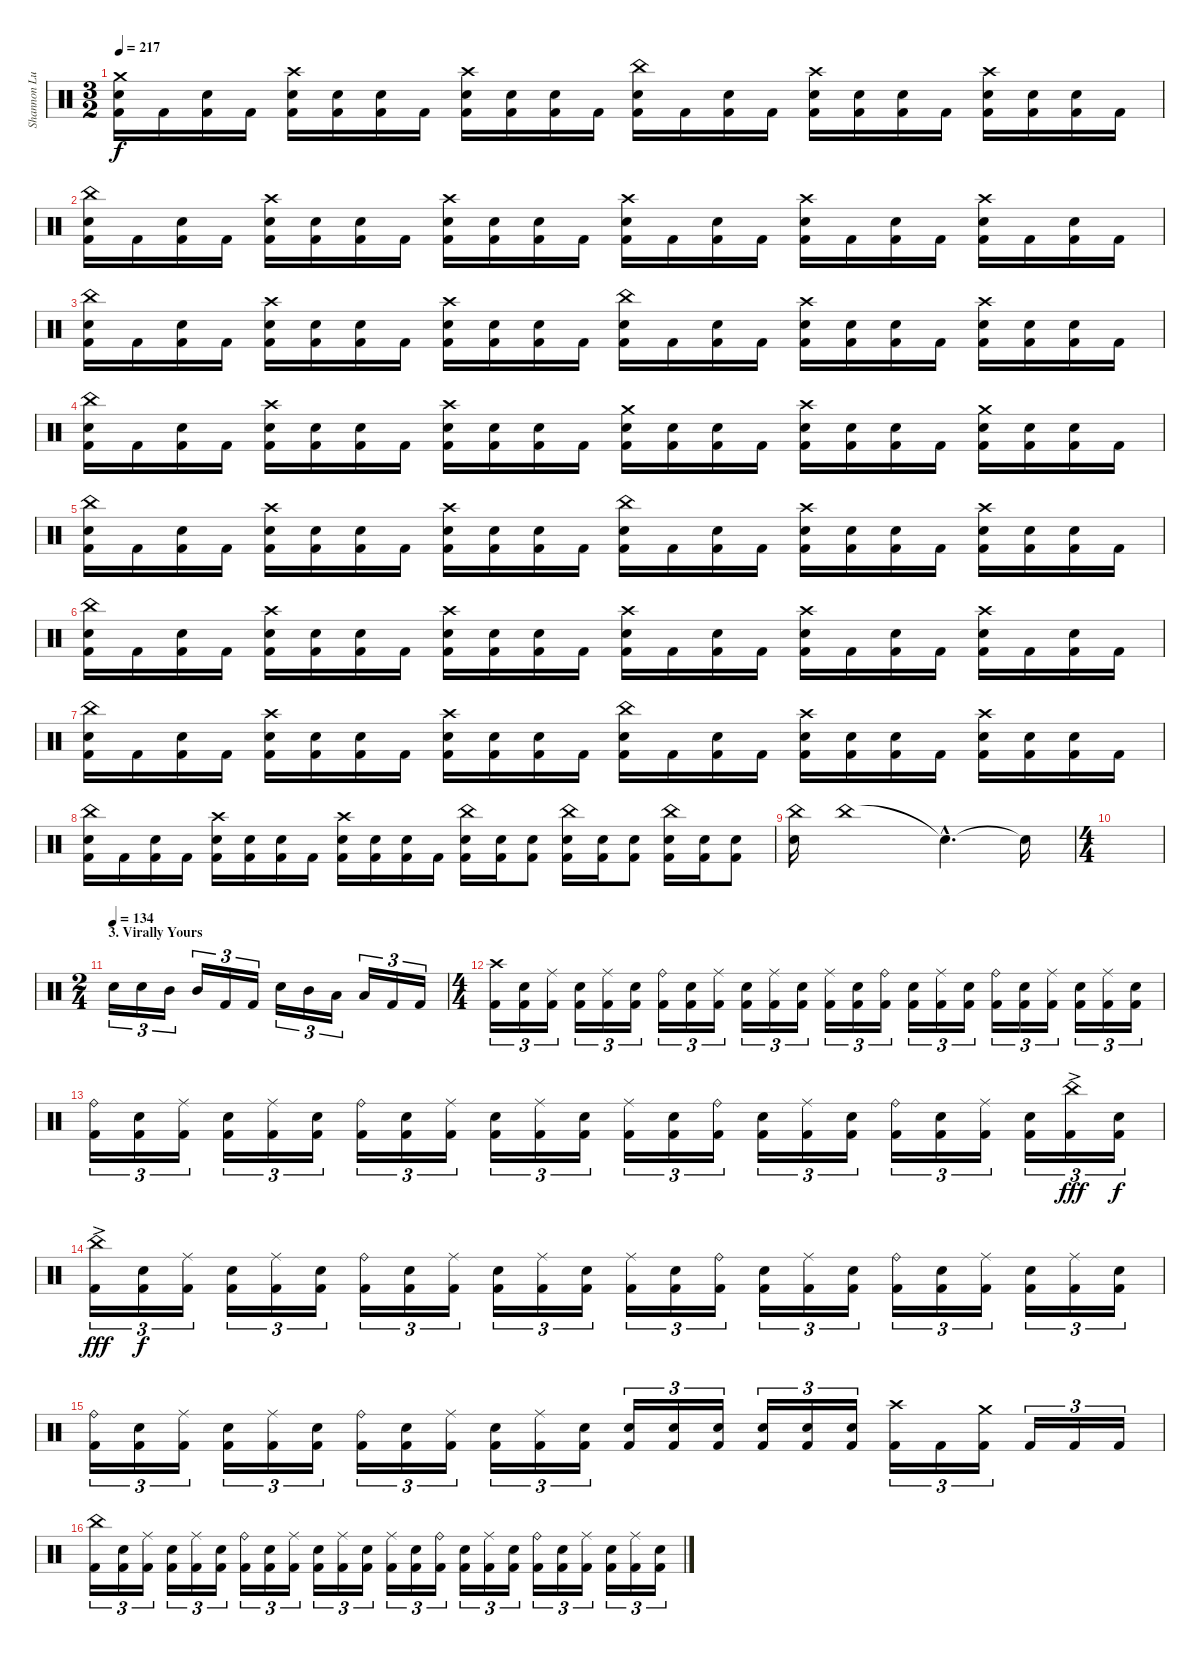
\track ("Shannon Lucas [Drums (Since 2007)]" "Shannon Lu") {instrument percussion}
\staff {score}
\articulation defaults
\ts (3 2)
\tempo 217
\clef neutral
\ks c
("Crash medium (hit)" "Snare (hit) 2" "Kick (hit) 2").16{dy f} "Kick (hit) 2".16 ("Snare (hit) 2" "Kick (hit) 2").16 "Kick (hit) 2".16 ("Crash high (hit)" "Snare (hit) 2" "Kick (hit) 2").16 ("Snare (hit) 2" "Kick (hit) 2").16 ("Snare (hit) 2" "Kick (hit) 2").16 "Kick (hit) 2".16 ("Crash high (hit)" "Snare (hit) 2" "Kick (hit) 2").16 ("Snare (hit) 2" "Kick (hit) 2").16 ("Snare (hit) 2" "Kick (hit) 2").16 "Kick (hit) 2".16 ("China (hit)" "Snare (hit) 2" "Kick (hit) 2").16 "Kick (hit) 2".16 ("Snare (hit) 2" "Kick (hit) 2").16 "Kick (hit) 2".16 ("Crash high (hit)" "Snare (hit) 2" "Kick (hit) 2").16 ("Snare (hit) 2" "Kick (hit) 2").16 ("Snare (hit) 2" "Kick (hit) 2").16 "Kick (hit) 2".16 ("Crash high (hit)" "Snare (hit) 2" "Kick (hit) 2").16 ("Snare (hit) 2" "Kick (hit) 2").16 ("Snare (hit) 2" "Kick (hit) 2").16 "Kick (hit) 2".16 |
("China (hit)" "Snare (hit) 2" "Kick (hit) 2").16 "Kick (hit) 2".16 ("Snare (hit) 2" "Kick (hit) 2").16 "Kick (hit) 2".16 ("Crash high (hit)" "Snare (hit) 2" "Kick (hit) 2").16 ("Snare (hit) 2" "Kick (hit) 2").16 ("Snare (hit) 2" "Kick (hit) 2").16 "Kick (hit) 2".16 ("Crash high (hit)" "Snare (hit) 2" "Kick (hit) 2").16 ("Snare (hit) 2" "Kick (hit) 2").16 ("Snare (hit) 2" "Kick (hit) 2").16 "Kick (hit) 2".16 ("Crash high (hit)" "Snare (hit) 2" "Kick (hit) 2").16 "Kick (hit) 2".16 ("Snare (hit) 2" "Kick (hit) 2").16 "Kick (hit) 2".16 ("Crash high (hit)" "Snare (hit) 2" "Kick (hit) 2").16 "Kick (hit) 2".16 ("Snare (hit) 2" "Kick (hit) 2").16 "Kick (hit) 2".16 ("Crash high (hit)" "Snare (hit) 2" "Kick (hit) 2").16 "Kick (hit) 2".16 ("Snare (hit) 2" "Kick (hit) 2").16 "Kick (hit) 2".16 |
("China (hit)" "Snare (hit) 2" "Kick (hit) 2").16 "Kick (hit) 2".16 ("Snare (hit) 2" "Kick (hit) 2").16 "Kick (hit) 2".16 ("Crash high (hit)" "Snare (hit) 2" "Kick (hit) 2").16 ("Snare (hit) 2" "Kick (hit) 2").16 ("Snare (hit) 2" "Kick (hit) 2").16 "Kick (hit) 2".16 ("Crash high (hit)" "Snare (hit) 2" "Kick (hit) 2").16 ("Snare (hit) 2" "Kick (hit) 2").16 ("Snare (hit) 2" "Kick (hit) 2").16 "Kick (hit) 2".16 ("China (hit)" "Snare (hit) 2" "Kick (hit) 2").16 "Kick (hit) 2".16 ("Snare (hit) 2" "Kick (hit) 2").16 "Kick (hit) 2".16 ("Crash high (hit)" "Snare (hit) 2" "Kick (hit) 2").16 ("Snare (hit) 2" "Kick (hit) 2").16 ("Snare (hit) 2" "Kick (hit) 2").16 "Kick (hit) 2".16 ("Crash high (hit)" "Snare (hit) 2" "Kick (hit) 2").16 ("Snare (hit) 2" "Kick (hit) 2").16 ("Snare (hit) 2" "Kick (hit) 2").16 "Kick (hit) 2".16 |
("China (hit)" "Snare (hit) 2" "Kick (hit) 2").16 "Kick (hit) 2".16 ("Snare (hit) 2" "Kick (hit) 2").16 "Kick (hit) 2".16 ("Crash high (hit)" "Snare (hit) 2" "Kick (hit) 2").16 ("Snare (hit) 2" "Kick (hit) 2").16 ("Snare (hit) 2" "Kick (hit) 2").16 "Kick (hit) 2".16 ("Crash high (hit)" "Snare (hit) 2" "Kick (hit) 2").16 ("Snare (hit) 2" "Kick (hit) 2").16 ("Snare (hit) 2" "Kick (hit) 2").16 "Kick (hit) 2".16 ("Crash medium (hit)" "Snare (hit) 2" "Kick (hit) 2").16 ("Snare (hit) 2" "Kick (hit) 2").16 ("Snare (hit) 2" "Kick (hit) 2").16 "Kick (hit) 2".16 ("Crash high (hit)" "Snare (hit) 2" "Kick (hit) 2").16 ("Snare (hit) 2" "Kick (hit) 2").16 ("Snare (hit) 2" "Kick (hit) 2").16 "Kick (hit) 2".16 ("Crash medium (hit)" "Snare (hit) 2" "Kick (hit) 2").16 ("Snare (hit) 2" "Kick (hit) 2").16 ("Snare (hit) 2" "Kick (hit) 2").16 "Kick (hit) 2".16 |
("China (hit)" "Snare (hit) 2" "Kick (hit) 2").16 "Kick (hit) 2".16 ("Snare (hit) 2" "Kick (hit) 2").16 "Kick (hit) 2".16 ("Crash high (hit)" "Snare (hit) 2" "Kick (hit) 2").16 ("Snare (hit) 2" "Kick (hit) 2").16 ("Snare (hit) 2" "Kick (hit) 2").16 "Kick (hit) 2".16 ("Crash high (hit)" "Snare (hit) 2" "Kick (hit) 2").16 ("Snare (hit) 2" "Kick (hit) 2").16 ("Snare (hit) 2" "Kick (hit) 2").16 "Kick (hit) 2".16 ("China (hit)" "Snare (hit) 2" "Kick (hit) 2").16 "Kick (hit) 2".16 ("Snare (hit) 2" "Kick (hit) 2").16 "Kick (hit) 2".16 ("Crash high (hit)" "Snare (hit) 2" "Kick (hit) 2").16 ("Snare (hit) 2" "Kick (hit) 2").16 ("Snare (hit) 2" "Kick (hit) 2").16 "Kick (hit) 2".16 ("Crash high (hit)" "Snare (hit) 2" "Kick (hit) 2").16 ("Snare (hit) 2" "Kick (hit) 2").16 ("Snare (hit) 2" "Kick (hit) 2").16 "Kick (hit) 2".16 |
("China (hit)" "Snare (hit) 2" "Kick (hit) 2").16 "Kick (hit) 2".16 ("Snare (hit) 2" "Kick (hit) 2").16 "Kick (hit) 2".16 ("Crash high (hit)" "Snare (hit) 2" "Kick (hit) 2").16 ("Snare (hit) 2" "Kick (hit) 2").16 ("Snare (hit) 2" "Kick (hit) 2").16 "Kick (hit) 2".16 ("Crash high (hit)" "Snare (hit) 2" "Kick (hit) 2").16 ("Snare (hit) 2" "Kick (hit) 2").16 ("Snare (hit) 2" "Kick (hit) 2").16 "Kick (hit) 2".16 ("Crash high (hit)" "Snare (hit) 2" "Kick (hit) 2").16 "Kick (hit) 2".16 ("Snare (hit) 2" "Kick (hit) 2").16 "Kick (hit) 2".16 ("Crash high (hit)" "Snare (hit) 2" "Kick (hit) 2").16 "Kick (hit) 2".16 ("Snare (hit) 2" "Kick (hit) 2").16 "Kick (hit) 2".16 ("Crash high (hit)" "Snare (hit) 2" "Kick (hit) 2").16 "Kick (hit) 2".16 ("Snare (hit) 2" "Kick (hit) 2").16 "Kick (hit) 2".16 |
("China (hit)" "Snare (hit) 2" "Kick (hit) 2").16 "Kick (hit) 2".16 ("Snare (hit) 2" "Kick (hit) 2").16 "Kick (hit) 2".16 ("Crash high (hit)" "Snare (hit) 2" "Kick (hit) 2").16 ("Snare (hit) 2" "Kick (hit) 2").16 ("Snare (hit) 2" "Kick (hit) 2").16 "Kick (hit) 2".16 ("Crash high (hit)" "Snare (hit) 2" "Kick (hit) 2").16 ("Snare (hit) 2" "Kick (hit) 2").16 ("Snare (hit) 2" "Kick (hit) 2").16 "Kick (hit) 2".16 ("China (hit)" "Snare (hit) 2" "Kick (hit) 2").16 "Kick (hit) 2".16 ("Snare (hit) 2" "Kick (hit) 2").16 "Kick (hit) 2".16 ("Crash high (hit)" "Snare (hit) 2" "Kick (hit) 2").16 ("Snare (hit) 2" "Kick (hit) 2").16 ("Snare (hit) 2" "Kick (hit) 2").16 "Kick (hit) 2".16 ("Crash high (hit)" "Snare (hit) 2" "Kick (hit) 2").16 ("Snare (hit) 2" "Kick (hit) 2").16 ("Snare (hit) 2" "Kick (hit) 2").16 "Kick (hit) 2".16 |
("China (hit)" "Snare (hit) 2" "Kick (hit) 2").16 "Kick (hit) 2".16 ("Snare (hit) 2" "Kick (hit) 2").16 "Kick (hit) 2".16 ("Crash high (hit)" "Snare (hit) 2" "Kick (hit) 2").16 ("Snare (hit) 2" "Kick (hit) 2").16 ("Snare (hit) 2" "Kick (hit) 2").16 "Kick (hit) 2".16 ("Crash high (hit)" "Snare (hit) 2" "Kick (hit) 2").16 ("Snare (hit) 2" "Kick (hit) 2").16 ("Snare (hit) 2" "Kick (hit) 2").16 "Kick (hit) 2".16 ("China (hit)" "Snare (hit) 2" "Kick (hit) 2").16 ("Snare (hit) 2" "Kick (hit) 2").16 ("Snare (hit) 2" "Kick (hit) 2").8 ("China (hit)" "Snare (hit) 2" "Kick (hit) 2").16 ("Snare (hit) 2" "Kick (hit) 2").16 ("Snare (hit) 2" "Kick (hit) 2").8 ("China (hit)" "Snare (hit) 2" "Kick (hit) 2").16 ("Snare (hit) 2" "Kick (hit) 2").16 ("Snare (hit) 2" "Kick (hit) 2").8 |
("China (hit)" "Snare (hit) 2").16 "China (hit)".1{balance 16} "Snare (hit)"{hac t}.4{d} "Snare (hit)"{t}.16 |
\ts (4 4)
|
\ts (2 4)
\section ("" "3. Virally Yours")
\tempo (134)
"Snare (hit) 2".16{tu (3 2)} "Snare (hit) 2".16{tu (3 2)} "Mid Tom (hit)".16{tu (3 2)} "Mid Tom (hit)".16{tu (3 2)} "Kick (hit) 2".16{tu (3 2)} "Kick (hit) 2".16{tu (3 2)} "Snare (hit) 2".16{tu (3 2)} "Mid Tom (hit)".16{tu (3 2)} "Low Tom (hit)".16{tu (3 2)} "Low Tom (hit)".16{tu (3 2)} "Kick (hit) 2".16{tu (3 2)} "Kick (hit) 2".16{tu (3 2)} |
\ts (4 4)
("Crash high (hit)" "Kick (hit) 2").16{tu (3 2)} ("Snare (hit) 2" "Kick (hit) 2").16{tu (3 2)} ("Ride (middle)" "Kick (hit) 2").16{tu (3 2)} ("Snare (hit) 2" "Kick (hit) 2").16{tu (3 2)} ("Ride (middle)" "Kick (hit) 2").16{tu (3 2)} ("Snare (hit) 2" "Kick (hit) 2").16{tu (3 2)} ("Ride (bell)" "Kick (hit) 2").16{tu (3 2)} ("Snare (hit) 2" "Kick (hit) 2").16{tu (3 2)} ("Ride (middle)" "Kick (hit) 2").16{tu (3 2)} ("Snare (hit) 2" "Kick (hit) 2").16{tu (3 2)} ("Ride (middle)" "Kick (hit) 2").16{tu (3 2)} ("Snare (hit) 2" "Kick (hit) 2").16{tu (3 2)} ("Ride (middle)" "Kick (hit) 2").16{tu (3 2)} ("Snare (hit) 2" "Kick (hit) 2").16{tu (3 2)} ("Ride (bell)" "Kick (hit) 2").16{tu (3 2)} ("Snare (hit) 2" "Kick (hit) 2").16{tu (3 2)} ("Ride (middle)" "Kick (hit) 2").16{tu (3 2)} ("Snare (hit) 2" "Kick (hit) 2").16{tu (3 2)} ("Ride (bell)" "Kick (hit) 2").16{tu (3 2)} ("Snare (hit) 2" "Kick (hit) 2").16{tu (3 2)} ("Ride (middle)" "Kick (hit) 2").16{tu (3 2)} ("Snare (hit) 2" "Kick (hit) 2").16{tu (3 2)} ("Ride (middle)" "Kick (hit) 2").16{tu (3 2)} ("Snare (hit) 2" "Kick (hit) 2").16{tu (3 2)} |
("Ride (bell)" "Kick (hit) 2").16{tu (3 2)} ("Snare (hit) 2" "Kick (hit) 2").16{tu (3 2)} ("Ride (middle)" "Kick (hit) 2").16{tu (3 2)} ("Snare (hit) 2" "Kick (hit) 2").16{tu (3 2)} ("Ride (middle)" "Kick (hit) 2").16{tu (3 2)} ("Snare (hit) 2" "Kick (hit) 2").16{tu (3 2)} ("Ride (bell)" "Kick (hit) 2").16{tu (3 2)} ("Snare (hit) 2" "Kick (hit) 2").16{tu (3 2)} ("Ride (middle)" "Kick (hit) 2").16{tu (3 2)} ("Snare (hit) 2" "Kick (hit) 2").16{tu (3 2)} ("Ride (middle)" "Kick (hit) 2").16{tu (3 2)} ("Snare (hit) 2" "Kick (hit) 2").16{tu (3 2)} ("Ride (middle)" "Kick (hit) 2").16{tu (3 2)} ("Snare (hit) 2" "Kick (hit) 2").16{tu (3 2)} ("Ride (bell)" "Kick (hit) 2").16{tu (3 2)} ("Snare (hit) 2" "Kick (hit) 2").16{tu (3 2)} ("Ride (middle)" "Kick (hit) 2").16{tu (3 2)} ("Snare (hit) 2" "Kick (hit) 2").16{tu (3 2)} ("Ride (bell)" "Kick (hit) 2").16{tu (3 2)} ("Snare (hit) 2" "Kick (hit) 2").16{tu (3 2)} ("Ride (middle)" "Kick (hit) 2").16{tu (3 2)} ("Snare (hit) 2" "Kick (hit) 2").16{tu (3 2)} ("China (hit)"{ac} "Kick (hit) 2").16{tu (3 2) dy fff} ("Snare (hit) 2" "Kick (hit) 2").16{tu (3 2) dy f} |
("China (hit)"{ac} "Kick (hit) 2").16{tu (3 2) dy fff} ("Snare (hit) 2" "Kick (hit) 2").16{tu (3 2) dy f} ("Ride (middle)" "Kick (hit) 2").16{tu (3 2)} ("Snare (hit) 2" "Kick (hit) 2").16{tu (3 2)} ("Ride (middle)" "Kick (hit) 2").16{tu (3 2)} ("Snare (hit) 2" "Kick (hit) 2").16{tu (3 2)} ("Ride (bell)" "Kick (hit) 2").16{tu (3 2)} ("Snare (hit) 2" "Kick (hit) 2").16{tu (3 2)} ("Ride (middle)" "Kick (hit) 2").16{tu (3 2)} ("Snare (hit) 2" "Kick (hit) 2").16{tu (3 2)} ("Ride (middle)" "Kick (hit) 2").16{tu (3 2)} ("Snare (hit) 2" "Kick (hit) 2").16{tu (3 2)} ("Ride (middle)" "Kick (hit) 2").16{tu (3 2)} ("Snare (hit) 2" "Kick (hit) 2").16{tu (3 2)} ("Ride (bell)" "Kick (hit) 2").16{tu (3 2)} ("Snare (hit) 2" "Kick (hit) 2").16{tu (3 2)} ("Ride (middle)" "Kick (hit) 2").16{tu (3 2)} ("Snare (hit) 2" "Kick (hit) 2").16{tu (3 2)} ("Ride (bell)" "Kick (hit) 2").16{tu (3 2)} ("Snare (hit) 2" "Kick (hit) 2").16{tu (3 2)} ("Ride (middle)" "Kick (hit) 2").16{tu (3 2)} ("Snare (hit) 2" "Kick (hit) 2").16{tu (3 2)} ("Ride (middle)" "Kick (hit) 2").16{tu (3 2)} ("Snare (hit) 2" "Kick (hit) 2").16{tu (3 2)} |
("Ride (bell)" "Kick (hit) 2").16{tu (3 2)} ("Snare (hit) 2" "Kick (hit) 2").16{tu (3 2)} ("Ride (middle)" "Kick (hit) 2").16{tu (3 2)} ("Snare (hit) 2" "Kick (hit) 2").16{tu (3 2)} ("Ride (middle)" "Kick (hit) 2").16{tu (3 2)} ("Snare (hit) 2" "Kick (hit) 2").16{tu (3 2)} ("Ride (bell)" "Kick (hit) 2").16{tu (3 2)} ("Snare (hit) 2" "Kick (hit) 2").16{tu (3 2)} ("Ride (middle)" "Kick (hit) 2").16{tu (3 2)} ("Snare (hit) 2" "Kick (hit) 2").16{tu (3 2)} ("Ride (middle)" "Kick (hit) 2").16{tu (3 2)} ("Snare (hit) 2" "Kick (hit) 2").16{tu (3 2)} ("Snare (hit) 2" "Kick (hit) 2").16{tu (3 2)} ("Snare (hit) 2" "Kick (hit) 2").16{tu (3 2)} ("Snare (hit) 2" "Kick (hit) 2").16{tu (3 2)} ("Snare (hit) 2" "Kick (hit) 2").16{tu (3 2)} ("Snare (hit) 2" "Kick (hit) 2").16{tu (3 2)} ("Snare (hit) 2" "Kick (hit) 2").16{tu (3 2)} ("Crash high (hit)" "Kick (hit) 2").16{tu (3 2)} "Kick (hit) 2".16{tu (3 2)} ("Crash medium (hit)" "Kick (hit) 2").16{tu (3 2)} "Kick (hit) 2".16{tu (3 2)} "Kick (hit) 2".16{tu (3 2)} "Kick (hit) 2".16{tu (3 2)} |
("China (hit)" "Kick (hit) 2").16{tu (3 2)} ("Snare (hit) 2" "Kick (hit) 2").16{tu (3 2)} ("Ride (middle)" "Kick (hit) 2").16{tu (3 2)} ("Snare (hit) 2" "Kick (hit) 2").16{tu (3 2)} ("Ride (middle)" "Kick (hit) 2").16{tu (3 2)} ("Snare (hit) 2" "Kick (hit) 2").16{tu (3 2)} ("Ride (bell)" "Kick (hit) 2").16{tu (3 2)} ("Snare (hit) 2" "Kick (hit) 2").16{tu (3 2)} ("Ride (middle)" "Kick (hit) 2").16{tu (3 2)} ("Snare (hit) 2" "Kick (hit) 2").16{tu (3 2)} ("Ride (middle)" "Kick (hit) 2").16{tu (3 2)} ("Snare (hit) 2" "Kick (hit) 2").16{tu (3 2)} ("Ride (middle)" "Kick (hit) 2").16{tu (3 2)} ("Snare (hit) 2" "Kick (hit) 2").16{tu (3 2)} ("Ride (bell)" "Kick (hit) 2").16{tu (3 2)} ("Snare (hit) 2" "Kick (hit) 2").16{tu (3 2)} ("Ride (middle)" "Kick (hit) 2").16{tu (3 2)} ("Snare (hit) 2" "Kick (hit) 2").16{tu (3 2)} ("Ride (bell)" "Kick (hit) 2").16{tu (3 2)} ("Snare (hit) 2" "Kick (hit) 2").16{tu (3 2)} ("Ride (middle)" "Kick (hit) 2").16{tu (3 2)} ("Snare (hit) 2" "Kick (hit) 2").16{tu (3 2)} ("Ride (middle)" "Kick (hit) 2").16{tu (3 2)} ("Snare (hit) 2" "Kick (hit) 2").16{tu (3 2)}
